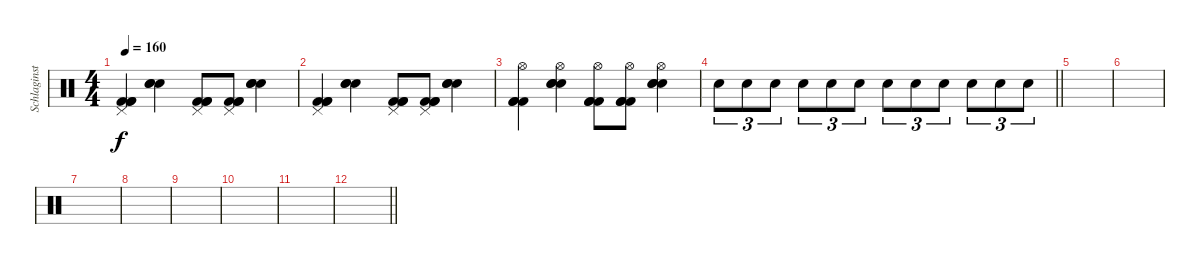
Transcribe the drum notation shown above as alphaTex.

\track ("Schlaginstrumente - Auswahl" "Schlaginst") {instrument percussion}
\staff {score}
\articulation defaults
\ts (4 4)
\tempo 160
\clef neutral
\ks c
("Kick (hit) 2" "Kick (hit) 2" "Kick (hit) 2" "Pedal Hi-Hat (hit)").4{dy f} ("Snare (hit) 2" "Snare (hit) 2" "Snare (hit) 2").4 ("Kick (hit) 2" "Kick (hit) 2" "Kick (hit) 2" "Pedal Hi-Hat (hit)").8 ("Kick (hit) 2" "Kick (hit) 2" "Kick (hit) 2" "Pedal Hi-Hat (hit)").8 ("Snare (hit) 2" "Snare (hit) 2" "Snare (hit) 2").4 |
("Kick (hit) 2" "Kick (hit) 2" "Kick (hit) 2" "Pedal Hi-Hat (hit)").4 ("Snare (hit) 2" "Snare (hit) 2" "Snare (hit) 2").4 ("Kick (hit) 2" "Kick (hit) 2" "Kick (hit) 2" "Pedal Hi-Hat (hit)").8 ("Kick (hit) 2" "Kick (hit) 2" "Kick (hit) 2" "Pedal Hi-Hat (hit)").8 ("Snare (hit) 2" "Snare (hit) 2" "Snare (hit) 2").4 |
("Kick (hit) 2" "Kick (hit) 2" "Kick (hit) 2" "Hi-Hat (open)").4 ("Snare (hit) 2" "Snare (hit) 2" "Snare (hit) 2" "Hi-Hat (open)").4 ("Kick (hit) 2" "Kick (hit) 2" "Kick (hit) 2" "Hi-Hat (open)").8 ("Kick (hit) 2" "Kick (hit) 2" "Kick (hit) 2" "Hi-Hat (open)").8 ("Snare (hit) 2" "Snare (hit) 2" "Snare (hit) 2" "Hi-Hat (open)").4 |
\barLineRight lightlight "Snare (hit) 2".8{tu (3 2)} "Snare (hit) 2".8{tu (3 2)} "Snare (hit) 2".8{tu (3 2)} "Snare (hit) 2".8{tu (3 2)} "Snare (hit) 2".8{tu (3 2)} "Snare (hit) 2".8{tu (3 2)} "Snare (hit) 2".8{tu (3 2)} "Snare (hit) 2".8{tu (3 2)} "Snare (hit) 2".8{tu (3 2)} "Snare (hit) 2".8{tu (3 2)} "Snare (hit) 2".8{tu (3 2)} "Snare (hit) 2".8{tu (3 2)}
|
|
|
|
|
|
|
|
\barLineRight lightlight
